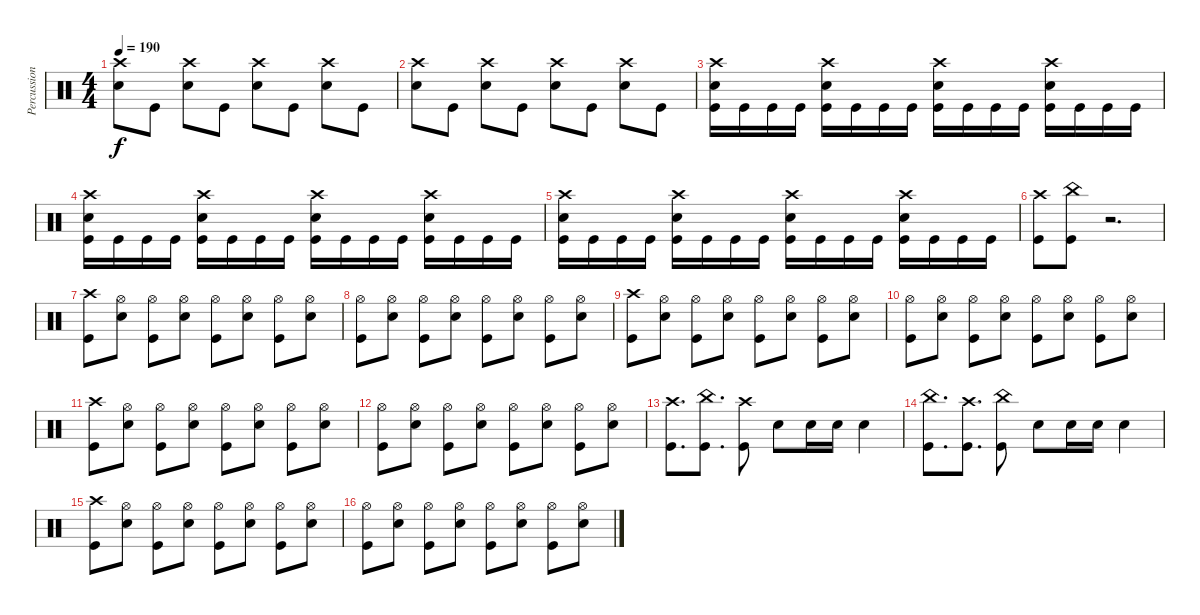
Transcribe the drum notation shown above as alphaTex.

\track ("Percussion" "Percussion") {instrument percussion}
\staff {score}
\articulation defaults
\ts (4 4)
\tempo 190
\clef neutral
\ks c
("Crash high (hit)" "Electric Snare (hit)").8{dy f} "Kick (hit)".8 ("Crash high (hit)" "Electric Snare (hit)").8 "Kick (hit)".8 ("Crash high (hit)" "Electric Snare (hit)").8 "Kick (hit)".8 ("Crash high (hit)" "Electric Snare (hit)").8 "Kick (hit)".8 |
("Crash high (hit)" "Electric Snare (hit)").8 "Kick (hit)".8 ("Crash high (hit)" "Electric Snare (hit)").8 "Kick (hit)".8 ("Crash high (hit)" "Electric Snare (hit)").8 "Kick (hit)".8 ("Crash high (hit)" "Electric Snare (hit)").8 "Kick (hit)".8 |
("Crash high (hit)" "Electric Snare (hit)" "Kick (hit)").16 "Kick (hit)".16 "Kick (hit)".16 "Kick (hit)".16 ("Crash high (hit)" "Electric Snare (hit)" "Kick (hit)").16 "Kick (hit)".16 "Kick (hit)".16 "Kick (hit)".16 ("Crash high (hit)" "Electric Snare (hit)" "Kick (hit)").16 "Kick (hit)".16 "Kick (hit)".16 "Kick (hit)".16 ("Crash high (hit)" "Electric Snare (hit)" "Kick (hit)").16 "Kick (hit)".16 "Kick (hit)".16 "Kick (hit)".16 |
("Crash high (hit)" "Electric Snare (hit)" "Kick (hit)").16 "Kick (hit)".16 "Kick (hit)".16 "Kick (hit)".16 ("Crash high (hit)" "Electric Snare (hit)" "Kick (hit)").16 "Kick (hit)".16 "Kick (hit)".16 "Kick (hit)".16 ("Crash high (hit)" "Electric Snare (hit)" "Kick (hit)").16 "Kick (hit)".16 "Kick (hit)".16 "Kick (hit)".16 ("Crash high (hit)" "Electric Snare (hit)" "Kick (hit)").16 "Kick (hit)".16 "Kick (hit)".16 "Kick (hit)".16 |
("Crash high (hit)" "Electric Snare (hit)" "Kick (hit)").16 "Kick (hit)".16 "Kick (hit)".16 "Kick (hit)".16 ("Crash high (hit)" "Electric Snare (hit)" "Kick (hit)").16 "Kick (hit)".16 "Kick (hit)".16 "Kick (hit)".16 ("Crash high (hit)" "Electric Snare (hit)" "Kick (hit)").16 "Kick (hit)".16 "Kick (hit)".16 "Kick (hit)".16 ("Crash high (hit)" "Electric Snare (hit)" "Kick (hit)").16 "Kick (hit)".16 "Kick (hit)".16 "Kick (hit)".16 |
("Crash high (hit)" "Kick (hit)").8 ("China (hit)" "Kick (hit)").8 r.2{d} |
("Crash high (hit)" "Kick (hit)").8 ("Hi-Hat (open)" "Electric Snare (hit)").8 ("Hi-Hat (open)" "Kick (hit)").8 ("Hi-Hat (open)" "Electric Snare (hit)").8 ("Hi-Hat (open)" "Kick (hit)").8 ("Hi-Hat (open)" "Electric Snare (hit)").8 ("Hi-Hat (open)" "Kick (hit)").8 ("Hi-Hat (open)" "Electric Snare (hit)").8 |
("Hi-Hat (open)" "Kick (hit)").8 ("Hi-Hat (open)" "Electric Snare (hit)").8 ("Hi-Hat (open)" "Kick (hit)").8 ("Hi-Hat (open)" "Electric Snare (hit)").8 ("Hi-Hat (open)" "Kick (hit)").8 ("Hi-Hat (open)" "Electric Snare (hit)").8 ("Hi-Hat (open)" "Kick (hit)").8 ("Hi-Hat (open)" "Electric Snare (hit)").8 |
("Crash high (hit)" "Kick (hit)").8 ("Hi-Hat (open)" "Electric Snare (hit)").8 ("Hi-Hat (open)" "Kick (hit)").8 ("Hi-Hat (open)" "Electric Snare (hit)").8 ("Hi-Hat (open)" "Kick (hit)").8 ("Hi-Hat (open)" "Electric Snare (hit)").8 ("Hi-Hat (open)" "Kick (hit)").8 ("Hi-Hat (open)" "Electric Snare (hit)").8 |
("Hi-Hat (open)" "Kick (hit)").8 ("Hi-Hat (open)" "Electric Snare (hit)").8 ("Hi-Hat (open)" "Kick (hit)").8 ("Hi-Hat (open)" "Electric Snare (hit)").8 ("Hi-Hat (open)" "Kick (hit)").8 ("Hi-Hat (open)" "Electric Snare (hit)").8 ("Hi-Hat (open)" "Kick (hit)").8 ("Hi-Hat (open)" "Electric Snare (hit)").8 |
("Crash high (hit)" "Kick (hit)").8 ("Hi-Hat (open)" "Electric Snare (hit)").8 ("Hi-Hat (open)" "Kick (hit)").8 ("Hi-Hat (open)" "Electric Snare (hit)").8 ("Hi-Hat (open)" "Kick (hit)").8 ("Hi-Hat (open)" "Electric Snare (hit)").8 ("Hi-Hat (open)" "Kick (hit)").8 ("Hi-Hat (open)" "Electric Snare (hit)").8 |
("Hi-Hat (open)" "Kick (hit)").8 ("Hi-Hat (open)" "Electric Snare (hit)").8 ("Hi-Hat (open)" "Kick (hit)").8 ("Hi-Hat (open)" "Electric Snare (hit)").8 ("Hi-Hat (open)" "Kick (hit)").8 ("Hi-Hat (open)" "Electric Snare (hit)").8 ("Hi-Hat (open)" "Kick (hit)").8 ("Hi-Hat (open)" "Electric Snare (hit)").8 |
("Crash high (hit)" "Kick (hit)").8{d} ("China (hit)" "Kick (hit)").8{d} ("Crash high (hit)" "Kick (hit)").8 "Electric Snare (hit)".8 "Electric Snare (hit)".16 "Electric Snare (hit)".16 "Electric Snare (hit)".4 |
("China (hit)" "Kick (hit)").8{d} ("Crash high (hit)" "Kick (hit)").8{d} ("China (hit)" "Kick (hit)").8 "Electric Snare (hit)".8 "Electric Snare (hit)".16 "Electric Snare (hit)".16 "Electric Snare (hit)".4 |
("Crash high (hit)" "Kick (hit)").8 ("Hi-Hat (open)" "Electric Snare (hit)").8 ("Hi-Hat (open)" "Kick (hit)").8 ("Hi-Hat (open)" "Electric Snare (hit)").8 ("Hi-Hat (open)" "Kick (hit)").8 ("Hi-Hat (open)" "Electric Snare (hit)").8 ("Hi-Hat (open)" "Kick (hit)").8 ("Hi-Hat (open)" "Electric Snare (hit)").8 |
("Hi-Hat (open)" "Kick (hit)").8 ("Hi-Hat (open)" "Electric Snare (hit)").8 ("Hi-Hat (open)" "Kick (hit)").8 ("Hi-Hat (open)" "Electric Snare (hit)").8 ("Hi-Hat (open)" "Kick (hit)").8 ("Hi-Hat (open)" "Electric Snare (hit)").8 ("Hi-Hat (open)" "Kick (hit)").8 ("Hi-Hat (open)" "Electric Snare (hit)").8
